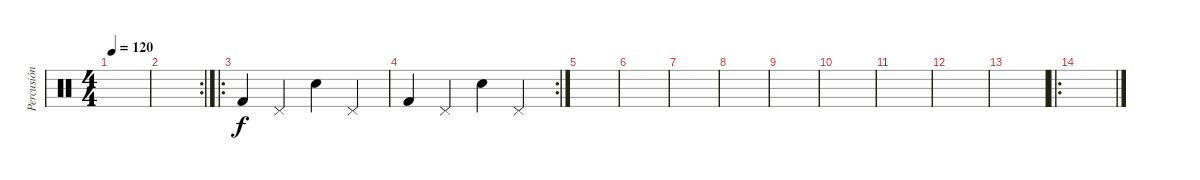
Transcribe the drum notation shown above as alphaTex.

\track ("Percusión" "Percusión") {instrument percussion}
\staff {score}
\articulation defaults
\ts (4 4)
\tempo 120
\clef neutral
\ks c
|
\rc 2
|
\ro "Kick (hit) 2".4 "Pedal Hi-Hat (hit)".4 "Snare (hit) 2".4 "Pedal Hi-Hat (hit)".4
|
\rc 2 "Kick (hit) 2".4 "Pedal Hi-Hat (hit)".4 "Snare (hit) 2".4 "Pedal Hi-Hat (hit)".4
|
|
|
|
|
|
|
|
|
|
\ro
